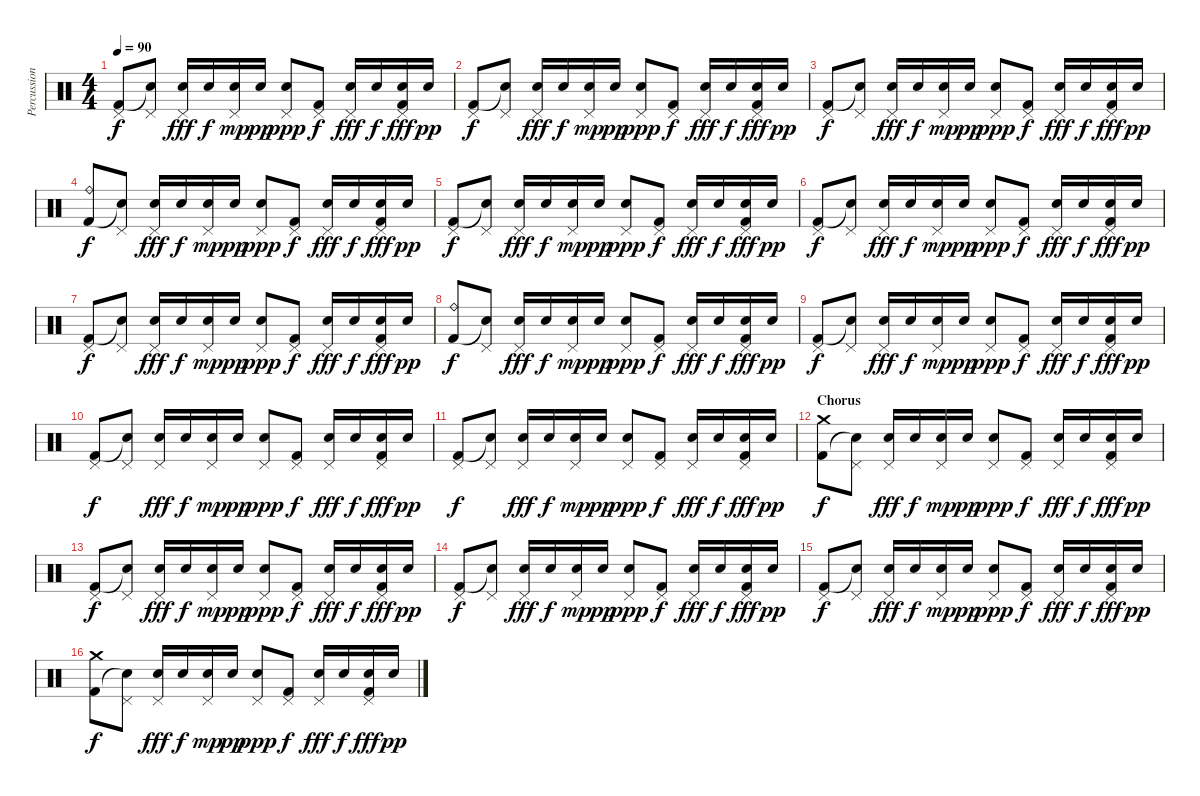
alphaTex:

\track ("Percussion" "Percussion") {instrument percussion}
\staff {score}
\articulation defaults
\ts (4 4)
\tempo 90
\clef neutral
\ks c
("Pedal Hi-Hat (hit)" "Kick (hit) 2").8{dy f} ("Pedal Hi-Hat (hit)" "Snare (hit)"{t}).8 ("Pedal Hi-Hat (hit)" "Electric Snare (hit)").16{dy fff} "Electric Snare (hit)".16{dy f} ("Pedal Hi-Hat (hit)" "Electric Snare (hit)").16{dy mp} "Electric Snare (hit)".16{dy pp} ("Pedal Hi-Hat (hit)" "Electric Snare (hit)").8{dy ppp} ("Pedal Hi-Hat (hit)" "Kick (hit) 2").8{dy f} ("Pedal Hi-Hat (hit)" "Electric Snare (hit)").16{dy fff} "Electric Snare (hit)".16{dy f} ("Pedal Hi-Hat (hit)" "Electric Snare (hit)" "Kick (hit) 2").16{dy fff} "Electric Snare (hit)".16{dy pp} |
("Pedal Hi-Hat (hit)" "Kick (hit) 2").8{dy f} ("Pedal Hi-Hat (hit)" "Snare (hit)"{t}).8 ("Pedal Hi-Hat (hit)" "Electric Snare (hit)").16{dy fff} "Electric Snare (hit)".16{dy f} ("Pedal Hi-Hat (hit)" "Electric Snare (hit)").16{dy mp} "Electric Snare (hit)".16{dy pp} ("Pedal Hi-Hat (hit)" "Electric Snare (hit)").8{dy ppp} ("Pedal Hi-Hat (hit)" "Kick (hit) 2").8{dy f} ("Pedal Hi-Hat (hit)" "Electric Snare (hit)").16{dy fff} "Electric Snare (hit)".16{dy f} ("Pedal Hi-Hat (hit)" "Electric Snare (hit)" "Kick (hit) 2").16{dy fff} "Electric Snare (hit)".16{dy pp} |
("Pedal Hi-Hat (hit)" "Kick (hit) 2").8{dy f} ("Pedal Hi-Hat (hit)" "Snare (hit)"{t}).8 ("Pedal Hi-Hat (hit)" "Electric Snare (hit)").16{dy fff} "Electric Snare (hit)".16{dy f} ("Pedal Hi-Hat (hit)" "Electric Snare (hit)").16{dy mp} "Electric Snare (hit)".16{dy pp} ("Pedal Hi-Hat (hit)" "Electric Snare (hit)").8{dy ppp} ("Pedal Hi-Hat (hit)" "Kick (hit) 2").8{dy f} ("Pedal Hi-Hat (hit)" "Electric Snare (hit)").16{dy fff} "Electric Snare (hit)".16{dy f} ("Pedal Hi-Hat (hit)" "Electric Snare (hit)" "Kick (hit) 2").16{dy fff} "Electric Snare (hit)".16{dy pp} |
("Ride (bell)" "Kick (hit) 2").8{dy f} ("Pedal Hi-Hat (hit)" "Snare (hit)"{t}).8 ("Pedal Hi-Hat (hit)" "Electric Snare (hit)").16{dy fff} "Electric Snare (hit)".16{dy f} ("Pedal Hi-Hat (hit)" "Electric Snare (hit)").16{dy mp} "Electric Snare (hit)".16{dy pp} ("Pedal Hi-Hat (hit)" "Electric Snare (hit)").8{dy ppp} ("Pedal Hi-Hat (hit)" "Kick (hit) 2").8{dy f} ("Pedal Hi-Hat (hit)" "Electric Snare (hit)").16{dy fff} "Electric Snare (hit)".16{dy f} ("Pedal Hi-Hat (hit)" "Electric Snare (hit)" "Kick (hit) 2").16{dy fff} "Electric Snare (hit)".16{dy pp} |
("Pedal Hi-Hat (hit)" "Kick (hit) 2").8{dy f} ("Pedal Hi-Hat (hit)" "Snare (hit)"{t}).8 ("Pedal Hi-Hat (hit)" "Electric Snare (hit)").16{dy fff} "Electric Snare (hit)".16{dy f} ("Pedal Hi-Hat (hit)" "Electric Snare (hit)").16{dy mp} "Electric Snare (hit)".16{dy pp} ("Pedal Hi-Hat (hit)" "Electric Snare (hit)").8{dy ppp} ("Pedal Hi-Hat (hit)" "Kick (hit) 2").8{dy f} ("Pedal Hi-Hat (hit)" "Electric Snare (hit)").16{dy fff} "Electric Snare (hit)".16{dy f} ("Pedal Hi-Hat (hit)" "Electric Snare (hit)" "Kick (hit) 2").16{dy fff} "Electric Snare (hit)".16{dy pp} |
("Pedal Hi-Hat (hit)" "Kick (hit) 2").8{dy f} ("Pedal Hi-Hat (hit)" "Snare (hit)"{t}).8 ("Pedal Hi-Hat (hit)" "Electric Snare (hit)").16{dy fff} "Electric Snare (hit)".16{dy f} ("Pedal Hi-Hat (hit)" "Electric Snare (hit)").16{dy mp} "Electric Snare (hit)".16{dy pp} ("Pedal Hi-Hat (hit)" "Electric Snare (hit)").8{dy ppp} ("Pedal Hi-Hat (hit)" "Kick (hit) 2").8{dy f} ("Pedal Hi-Hat (hit)" "Electric Snare (hit)").16{dy fff} "Electric Snare (hit)".16{dy f} ("Pedal Hi-Hat (hit)" "Electric Snare (hit)" "Kick (hit) 2").16{dy fff} "Electric Snare (hit)".16{dy pp} |
("Pedal Hi-Hat (hit)" "Kick (hit) 2").8{dy f} ("Pedal Hi-Hat (hit)" "Snare (hit)"{t}).8 ("Pedal Hi-Hat (hit)" "Electric Snare (hit)").16{dy fff} "Electric Snare (hit)".16{dy f} ("Pedal Hi-Hat (hit)" "Electric Snare (hit)").16{dy mp} "Electric Snare (hit)".16{dy pp} ("Pedal Hi-Hat (hit)" "Electric Snare (hit)").8{dy ppp} ("Pedal Hi-Hat (hit)" "Kick (hit) 2").8{dy f} ("Pedal Hi-Hat (hit)" "Electric Snare (hit)").16{dy fff} "Electric Snare (hit)".16{dy f} ("Pedal Hi-Hat (hit)" "Electric Snare (hit)" "Kick (hit) 2").16{dy fff} "Electric Snare (hit)".16{dy pp} |
("Ride (bell)" "Kick (hit) 2").8{dy f} ("Pedal Hi-Hat (hit)" "Snare (hit)"{t}).8 ("Pedal Hi-Hat (hit)" "Electric Snare (hit)").16{dy fff} "Electric Snare (hit)".16{dy f} ("Pedal Hi-Hat (hit)" "Electric Snare (hit)").16{dy mp} "Electric Snare (hit)".16{dy pp} ("Pedal Hi-Hat (hit)" "Electric Snare (hit)").8{dy ppp} ("Pedal Hi-Hat (hit)" "Kick (hit) 2").8{dy f} ("Pedal Hi-Hat (hit)" "Electric Snare (hit)").16{dy fff} "Electric Snare (hit)".16{dy f} ("Pedal Hi-Hat (hit)" "Electric Snare (hit)" "Kick (hit) 2").16{dy fff} "Electric Snare (hit)".16{dy pp} |
("Pedal Hi-Hat (hit)" "Kick (hit) 2").8{dy f} ("Pedal Hi-Hat (hit)" "Snare (hit)"{t}).8 ("Pedal Hi-Hat (hit)" "Electric Snare (hit)").16{dy fff} "Electric Snare (hit)".16{dy f} ("Pedal Hi-Hat (hit)" "Electric Snare (hit)").16{dy mp} "Electric Snare (hit)".16{dy pp} ("Pedal Hi-Hat (hit)" "Electric Snare (hit)").8{dy ppp} ("Pedal Hi-Hat (hit)" "Kick (hit) 2").8{dy f} ("Pedal Hi-Hat (hit)" "Electric Snare (hit)").16{dy fff} "Electric Snare (hit)".16{dy f} ("Pedal Hi-Hat (hit)" "Electric Snare (hit)" "Kick (hit) 2").16{dy fff} "Electric Snare (hit)".16{dy pp} |
("Pedal Hi-Hat (hit)" "Kick (hit) 2").8{dy f} ("Pedal Hi-Hat (hit)" "Snare (hit)"{t}).8 ("Pedal Hi-Hat (hit)" "Electric Snare (hit)").16{dy fff} "Electric Snare (hit)".16{dy f} ("Pedal Hi-Hat (hit)" "Electric Snare (hit)").16{dy mp} "Electric Snare (hit)".16{dy pp} ("Pedal Hi-Hat (hit)" "Electric Snare (hit)").8{dy ppp} ("Pedal Hi-Hat (hit)" "Kick (hit) 2").8{dy f} ("Pedal Hi-Hat (hit)" "Electric Snare (hit)").16{dy fff} "Electric Snare (hit)".16{dy f} ("Pedal Hi-Hat (hit)" "Electric Snare (hit)" "Kick (hit) 2").16{dy fff} "Electric Snare (hit)".16{dy pp} |
("Pedal Hi-Hat (hit)" "Kick (hit) 2").8{dy f} ("Pedal Hi-Hat (hit)" "Snare (hit)"{t}).8 ("Pedal Hi-Hat (hit)" "Electric Snare (hit)").16{dy fff} "Electric Snare (hit)".16{dy f} ("Pedal Hi-Hat (hit)" "Electric Snare (hit)").16{dy mp} "Electric Snare (hit)".16{dy pp} ("Pedal Hi-Hat (hit)" "Electric Snare (hit)").8{dy ppp} ("Pedal Hi-Hat (hit)" "Kick (hit) 2").8{dy f} ("Pedal Hi-Hat (hit)" "Electric Snare (hit)").16{dy fff} "Electric Snare (hit)".16{dy f} ("Pedal Hi-Hat (hit)" "Electric Snare (hit)" "Kick (hit) 2").16{dy fff} "Electric Snare (hit)".16{dy pp} |
\section ("" "Chorus")
("Crash medium (hit)" "Kick (hit) 2").8{dy f} ("Pedal Hi-Hat (hit)" "Snare (hit)"{t}).8 ("Pedal Hi-Hat (hit)" "Electric Snare (hit)").16{dy fff} "Electric Snare (hit)".16{dy f} ("Pedal Hi-Hat (hit)" "Electric Snare (hit)").16{dy mp} "Electric Snare (hit)".16{dy pp} ("Pedal Hi-Hat (hit)" "Electric Snare (hit)").8{dy ppp} ("Pedal Hi-Hat (hit)" "Kick (hit) 2").8{dy f} ("Pedal Hi-Hat (hit)" "Electric Snare (hit)").16{dy fff} "Electric Snare (hit)".16{dy f} ("Pedal Hi-Hat (hit)" "Electric Snare (hit)" "Kick (hit) 2").16{dy fff} "Electric Snare (hit)".16{dy pp} |
("Pedal Hi-Hat (hit)" "Kick (hit) 2").8{dy f} ("Pedal Hi-Hat (hit)" "Snare (hit)"{t}).8 ("Pedal Hi-Hat (hit)" "Electric Snare (hit)").16{dy fff} "Electric Snare (hit)".16{dy f} ("Pedal Hi-Hat (hit)" "Electric Snare (hit)").16{dy mp} "Electric Snare (hit)".16{dy pp} ("Pedal Hi-Hat (hit)" "Electric Snare (hit)").8{dy ppp} ("Pedal Hi-Hat (hit)" "Kick (hit) 2").8{dy f} ("Pedal Hi-Hat (hit)" "Electric Snare (hit)").16{dy fff} "Electric Snare (hit)".16{dy f} ("Pedal Hi-Hat (hit)" "Electric Snare (hit)" "Kick (hit) 2").16{dy fff} "Electric Snare (hit)".16{dy pp} |
("Pedal Hi-Hat (hit)" "Kick (hit) 2").8{dy f} ("Pedal Hi-Hat (hit)" "Snare (hit)"{t}).8 ("Pedal Hi-Hat (hit)" "Electric Snare (hit)").16{dy fff} "Electric Snare (hit)".16{dy f} ("Pedal Hi-Hat (hit)" "Electric Snare (hit)").16{dy mp} "Electric Snare (hit)".16{dy pp} ("Pedal Hi-Hat (hit)" "Electric Snare (hit)").8{dy ppp} ("Pedal Hi-Hat (hit)" "Kick (hit) 2").8{dy f} ("Pedal Hi-Hat (hit)" "Electric Snare (hit)").16{dy fff} "Electric Snare (hit)".16{dy f} ("Pedal Hi-Hat (hit)" "Electric Snare (hit)" "Kick (hit) 2").16{dy fff} "Electric Snare (hit)".16{dy pp} |
("Pedal Hi-Hat (hit)" "Kick (hit) 2").8{dy f} ("Pedal Hi-Hat (hit)" "Snare (hit)"{t}).8 ("Pedal Hi-Hat (hit)" "Electric Snare (hit)").16{dy fff} "Electric Snare (hit)".16{dy f} ("Pedal Hi-Hat (hit)" "Electric Snare (hit)").16{dy mp} "Electric Snare (hit)".16{dy pp} ("Pedal Hi-Hat (hit)" "Electric Snare (hit)").8{dy ppp} ("Pedal Hi-Hat (hit)" "Kick (hit) 2").8{dy f} ("Pedal Hi-Hat (hit)" "Electric Snare (hit)").16{dy fff} "Electric Snare (hit)".16{dy f} ("Pedal Hi-Hat (hit)" "Electric Snare (hit)" "Kick (hit) 2").16{dy fff} "Electric Snare (hit)".16{dy pp} |
("Crash medium (hit)" "Kick (hit) 2").8{dy f} ("Pedal Hi-Hat (hit)" "Snare (hit)"{t}).8 ("Pedal Hi-Hat (hit)" "Electric Snare (hit)").16{dy fff} "Electric Snare (hit)".16{dy f} ("Pedal Hi-Hat (hit)" "Electric Snare (hit)").16{dy mp} "Electric Snare (hit)".16{dy pp} ("Pedal Hi-Hat (hit)" "Electric Snare (hit)").8{dy ppp} ("Pedal Hi-Hat (hit)" "Kick (hit) 2").8{dy f} ("Pedal Hi-Hat (hit)" "Electric Snare (hit)").16{dy fff} "Electric Snare (hit)".16{dy f} ("Pedal Hi-Hat (hit)" "Electric Snare (hit)" "Kick (hit) 2").16{dy fff} "Electric Snare (hit)".16{dy pp}
